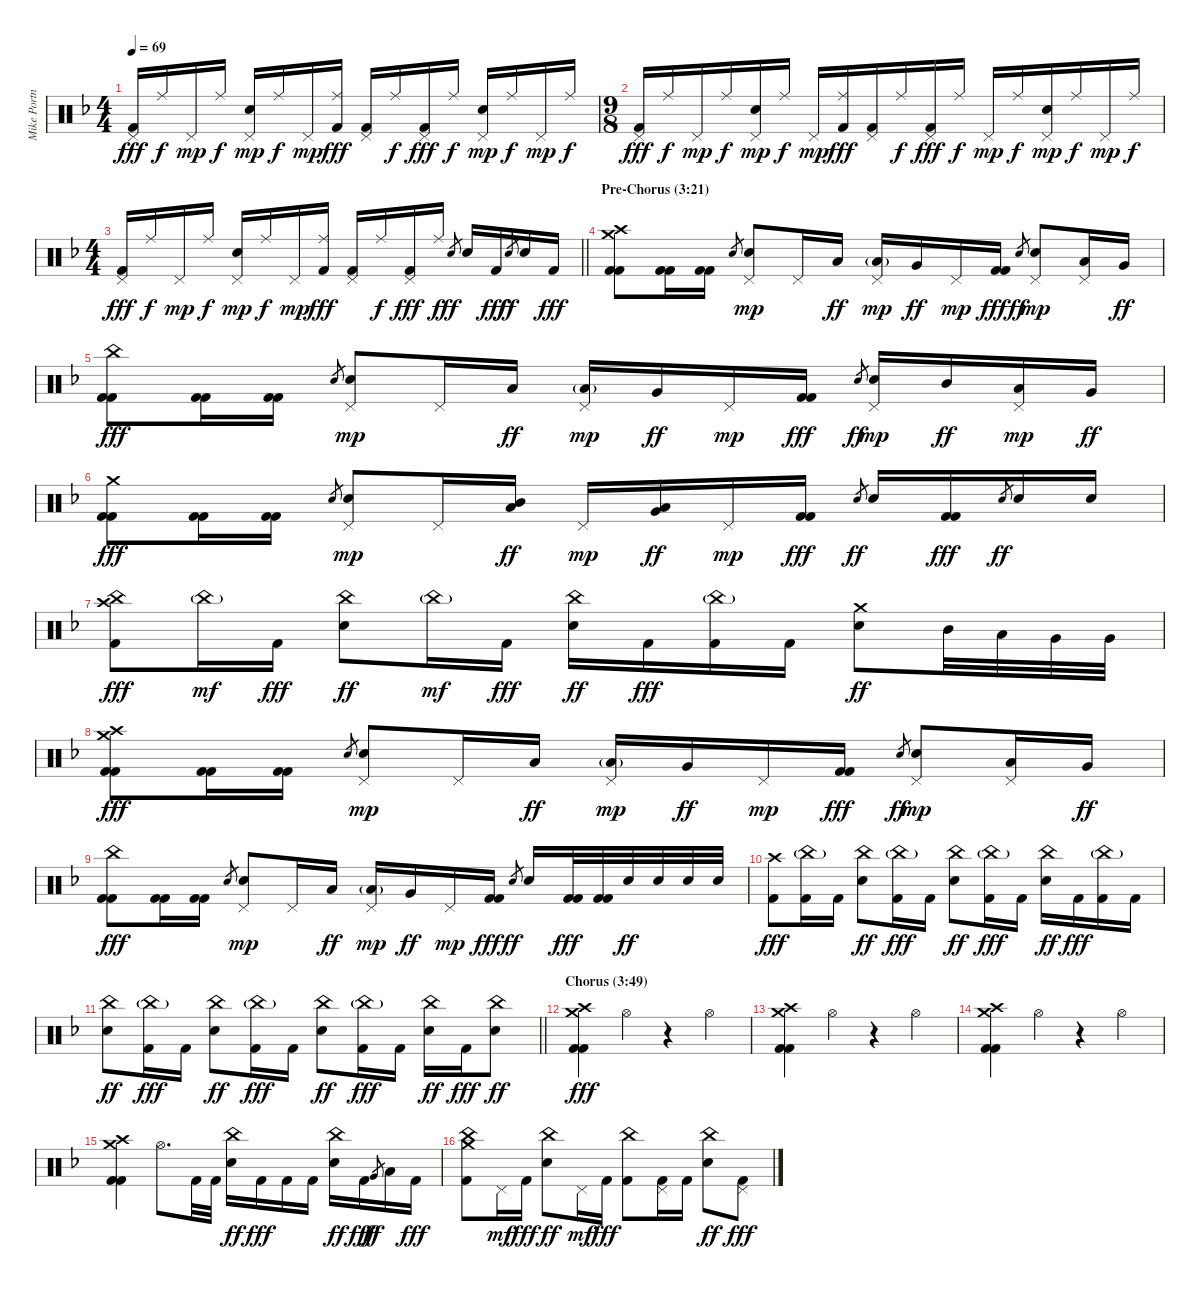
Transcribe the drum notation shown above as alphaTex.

\track ("Mike Portnoy Drums" "Mike Portn") {instrument percussion}
\staff {score}
\articulation defaults
\ts (4 4)
\tempo 69
\clef neutral
\ks dminor
("Pedal Hi-Hat (hit)" "Kick (hit) 2").16{dy fff} "Ride (middle)".16{dy f} "Pedal Hi-Hat (hit)".16{dy mp} "Ride (middle)".16{dy f} ("Electric Snare (hit)" "Pedal Hi-Hat (hit)").16{dy mp} "Ride (middle)".16{dy f} "Pedal Hi-Hat (hit)".16{dy mp} ("Ride (middle)" "Kick (hit) 2").16{dy fff} ("Pedal Hi-Hat (hit)" "Kick (hit) 2").16 "Ride (middle)".16{dy f} ("Pedal Hi-Hat (hit)" "Kick (hit) 2").16{dy fff} "Ride (middle)".16{dy f} ("Electric Snare (hit)" "Pedal Hi-Hat (hit)").16{dy mp} "Ride (middle)".16{dy f} "Pedal Hi-Hat (hit)".16{dy mp} "Ride (middle)".16{dy f} |
\ts (9 8)
("Pedal Hi-Hat (hit)" "Kick (hit) 2").16{dy fff} "Ride (middle)".16{dy f} "Pedal Hi-Hat (hit)".16{dy mp} "Ride (middle)".16{dy f} ("Electric Snare (hit)" "Pedal Hi-Hat (hit)").16{dy mp} "Ride (middle)".16{dy f} "Pedal Hi-Hat (hit)".16{dy mp} ("Ride (middle)" "Kick (hit) 2").16{dy fff} ("Pedal Hi-Hat (hit)" "Kick (hit) 2").16 "Ride (middle)".16{dy f} ("Pedal Hi-Hat (hit)" "Kick (hit) 2").16{dy fff} "Ride (middle)".16{dy f} "Pedal Hi-Hat (hit)".16{dy mp} "Ride (middle)".16{dy f} ("Electric Snare (hit)" "Pedal Hi-Hat (hit)").16{dy mp} "Ride (middle)".16{dy f} "Pedal Hi-Hat (hit)".16{dy mp} "Ride (middle)".16{dy f} |
\ts (4 4)
\barLineRight lightlight
("Pedal Hi-Hat (hit)" "Kick (hit) 2").16{dy fff} "Ride (middle)".16{dy f} "Pedal Hi-Hat (hit)".16{dy mp} "Ride (middle)".16{dy f} ("Electric Snare (hit)" "Pedal Hi-Hat (hit)").16{dy mp} "Ride (middle)".16{dy f} "Pedal Hi-Hat (hit)".16{dy mp} ("Ride (middle)" "Kick (hit) 2").16{dy fff} ("Pedal Hi-Hat (hit)" "Kick (hit) 2").16 "Ride (middle)".16{dy f} ("Pedal Hi-Hat (hit)" "Kick (hit) 2").16{dy fff} "Ride (middle)".16{dy f} "Electric Snare (hit)".8{gr dy ff} "Electric Snare (hit)".16 "Kick (hit) 2".16{dy fff} "Electric Snare (hit)".8{gr dy ff} "Electric Snare (hit)".16 "Kick (hit) 2".16{dy fff} |
\section ("" "Pre-Chorus (3:21)")
("Crash high (hit)" "Crash medium (hit)" "Kick (hit) 2" "Kick (hit) 2").8 ("Kick (hit) 2" "Kick (hit) 2").16 ("Kick (hit) 2" "Kick (hit) 2").16 "Electric Snare (hit)".8{gr} ("Electric Snare (hit)" "Pedal Hi-Hat (hit)").8{dy mp} "Pedal Hi-Hat (hit)".16 "Low Tom (hit)".16{dy ff} ("Low Tom (hit)"{g} "Pedal Hi-Hat (hit)").16{dy mp} "Very Low Tom (hit)".16{dy ff} "Pedal Hi-Hat (hit)".16{dy mp} ("Kick (hit) 2" "Kick (hit) 2").16{dy fff} "Electric Snare (hit)".8{gr dy ff} ("Electric Snare (hit)" "Pedal Hi-Hat (hit)").8{dy mp} ("Low Tom (hit)" "Pedal Hi-Hat (hit)").16 "Very Low Tom (hit)".16{dy ff} |
("China (hit)" "Kick (hit) 2" "Kick (hit) 2").8{dy fff} ("Kick (hit) 2" "Kick (hit) 2").16 ("Kick (hit) 2" "Kick (hit) 2").16 "Electric Snare (hit)".8{gr} ("Electric Snare (hit)" "Pedal Hi-Hat (hit)").8{dy mp} "Pedal Hi-Hat (hit)".16 "Low Tom (hit)".16{dy ff} ("Low Tom (hit)"{g} "Pedal Hi-Hat (hit)").16{dy mp} "Very Low Tom (hit)".16{dy ff} "Pedal Hi-Hat (hit)".16{dy mp} ("Kick (hit) 2" "Kick (hit) 2").16{dy fff} "Electric Snare (hit)".8{gr dy ff} ("Electric Snare (hit)" "Pedal Hi-Hat (hit)").16{dy mp} "Mid Tom (hit)".16{dy ff} ("Low Tom (hit)" "Pedal Hi-Hat (hit)").16{dy mp} "Very Low Tom (hit)".16{dy ff} |
("Crash medium (hit)" "Kick (hit) 2" "Kick (hit) 2").8{dy fff} ("Kick (hit) 2" "Kick (hit) 2").16 ("Kick (hit) 2" "Kick (hit) 2").16 "Electric Snare (hit)".8{gr} ("Electric Snare (hit)" "Pedal Hi-Hat (hit)").8{dy mp} "Pedal Hi-Hat (hit)".16 ("Mid Tom (hit)" "Low Tom (hit)").16{dy ff} "Pedal Hi-Hat (hit)".16{dy mp} ("Low Tom (hit)" "Very Low Tom (hit)").16{dy ff} "Pedal Hi-Hat (hit)".16{dy mp} ("Kick (hit) 2" "Kick (hit) 2").16{dy fff} "Electric Snare (hit)".8{gr dy ff} "Electric Snare (hit)".16 ("Kick (hit) 2" "Kick (hit) 2").16{dy fff} "Electric Snare (hit)".8{gr dy ff} "Electric Snare (hit)".16 "Electric Snare (hit)".16 |
("China (hit)" "Crash high (hit)" "Kick (hit) 2").8{dy fff} "China (hit)"{g}.16{dy mf} "Kick (hit) 2".16{dy fff} ("China (hit)" "Electric Snare (hit)").8{dy ff} "China (hit)"{g}.16{dy mf} "Kick (hit) 2".16{dy fff} ("China (hit)" "Electric Snare (hit)").16{dy ff} "Kick (hit) 2".16{dy fff} ("China (hit)"{g} "Kick (hit) 2").16 "Kick (hit) 2".16 ("Crash medium (hit)" "Electric Snare (hit)").8{dy ff} "Mid Tom (hit)".32 "Low Tom (hit)".32 "Very Low Tom (hit)".32 "Very Low Tom (hit)".32 |
("Crash high (hit)" "Crash medium (hit)" "Kick (hit) 2" "Kick (hit) 2").8{dy fff} ("Kick (hit) 2" "Kick (hit) 2").16 ("Kick (hit) 2" "Kick (hit) 2").16 "Electric Snare (hit)".8{gr} ("Electric Snare (hit)" "Pedal Hi-Hat (hit)").8{dy mp} "Pedal Hi-Hat (hit)".16 "Low Tom (hit)".16{dy ff} ("Low Tom (hit)"{g} "Pedal Hi-Hat (hit)").16{dy mp} "Very Low Tom (hit)".16{dy ff} "Pedal Hi-Hat (hit)".16{dy mp} ("Kick (hit) 2" "Kick (hit) 2").16{dy fff} "Electric Snare (hit)".8{gr dy ff} ("Electric Snare (hit)" "Pedal Hi-Hat (hit)").8{dy mp} ("Low Tom (hit)" "Pedal Hi-Hat (hit)").16 "Very Low Tom (hit)".16{dy ff} |
("China (hit)" "Kick (hit) 2" "Kick (hit) 2").8{dy fff} ("Kick (hit) 2" "Kick (hit) 2").16 ("Kick (hit) 2" "Kick (hit) 2").16 "Electric Snare (hit)".8{gr} ("Electric Snare (hit)" "Pedal Hi-Hat (hit)").8{dy mp} "Pedal Hi-Hat (hit)".16 "Low Tom (hit)".16{dy ff} ("Low Tom (hit)"{g} "Pedal Hi-Hat (hit)").16{dy mp} "Very Low Tom (hit)".16{dy ff} "Pedal Hi-Hat (hit)".16{dy mp} ("Kick (hit) 2" "Kick (hit) 2").16{dy fff} "Electric Snare (hit)".8{gr dy ff} "Electric Snare (hit)".16 ("Kick (hit) 2" "Kick (hit) 2").32{dy fff} ("Kick (hit) 2" "Kick (hit) 2").32 "Electric Snare (hit)".32{dy ff} "Electric Snare (hit)".32 "Electric Snare (hit)".32 "Electric Snare (hit)".32 |
("Crash high (hit)" "Kick (hit) 2").8{dy fff} ("China (hit)"{g} "Kick (hit) 2").16 "Kick (hit) 2".16 ("China (hit)" "Electric Snare (hit)").8{dy ff} ("China (hit)"{g} "Kick (hit) 2").16{dy fff} "Kick (hit) 2".16 ("China (hit)" "Electric Snare (hit)").8{dy ff} ("China (hit)"{g} "Kick (hit) 2").16{dy fff} "Kick (hit) 2".16 ("China (hit)" "Electric Snare (hit)").16{dy ff} "Kick (hit) 2".16{dy fff} ("China (hit)"{g} "Kick (hit) 2").16 "Kick (hit) 2".16 |
\barLineRight lightlight
("China (hit)" "Electric Snare (hit)").8{dy ff} ("China (hit)"{g} "Kick (hit) 2").16{dy fff} "Kick (hit) 2".16 ("China (hit)" "Electric Snare (hit)").8{dy ff} ("China (hit)"{g} "Kick (hit) 2").16{dy fff} "Kick (hit) 2".16 ("China (hit)" "Electric Snare (hit)").8{dy ff} ("China (hit)"{g} "Kick (hit) 2").16{dy fff} "Kick (hit) 2".16 ("China (hit)" "Electric Snare (hit)").16{dy ff} "Kick (hit) 2".16{dy fff} ("China (hit)" "Electric Snare (hit)").8{dy ff} |
\section ("" "Chorus (3:49)")
("Crash high (hit)" "Crash medium (hit)" "Kick (hit) 2" "Kick (hit) 2").4{dy fff} "Hi-Hat (open)".4 r.4 "Hi-Hat (open)".4 |
("Crash high (hit)" "Crash medium (hit)" "Kick (hit) 2" "Kick (hit) 2").4 "Hi-Hat (open)".4 r.4 "Hi-Hat (open)".4 |
("Crash high (hit)" "Crash medium (hit)" "Kick (hit) 2" "Kick (hit) 2").4 "Hi-Hat (open)".4 r.4 "Hi-Hat (open)".4 |
("Crash high (hit)" "Crash medium (hit)" "Kick (hit) 2" "Kick (hit) 2").4 "Hi-Hat (open)".8{d} "Kick (hit) 2".32 "Kick (hit) 2".32 ("China (hit)" "Electric Snare (hit)").16{dy ff} "Kick (hit) 2".16{dy fff} "Kick (hit) 2".16 "Kick (hit) 2".16 ("China (hit)" "Electric Snare (hit)").16{dy ff} "Kick (hit) 2".16{dy fff} "Very Low Tom (hit)".8{gr dy ff} "Low Tom (hit)".16 "Kick (hit) 2".16{dy fff} |
("China (hit)" "Crash medium (hit)" "Kick (hit) 2").8 "Pedal Hi-Hat (hit)".16{dy mf} "Kick (hit) 2".16{dy fff} ("China (hit)" "Electric Snare (hit)").8{dy ff} "Pedal Hi-Hat (hit)".16{dy mf} "Kick (hit) 2".16{dy fff} ("China (hit)" "Kick (hit) 2").8 ("Pedal Hi-Hat (hit)" "Kick (hit) 2").16 "Kick (hit) 2".16 ("China (hit)" "Electric Snare (hit)").8{dy ff} ("Pedal Hi-Hat (hit)" "Kick (hit) 2").8{dy fff}
